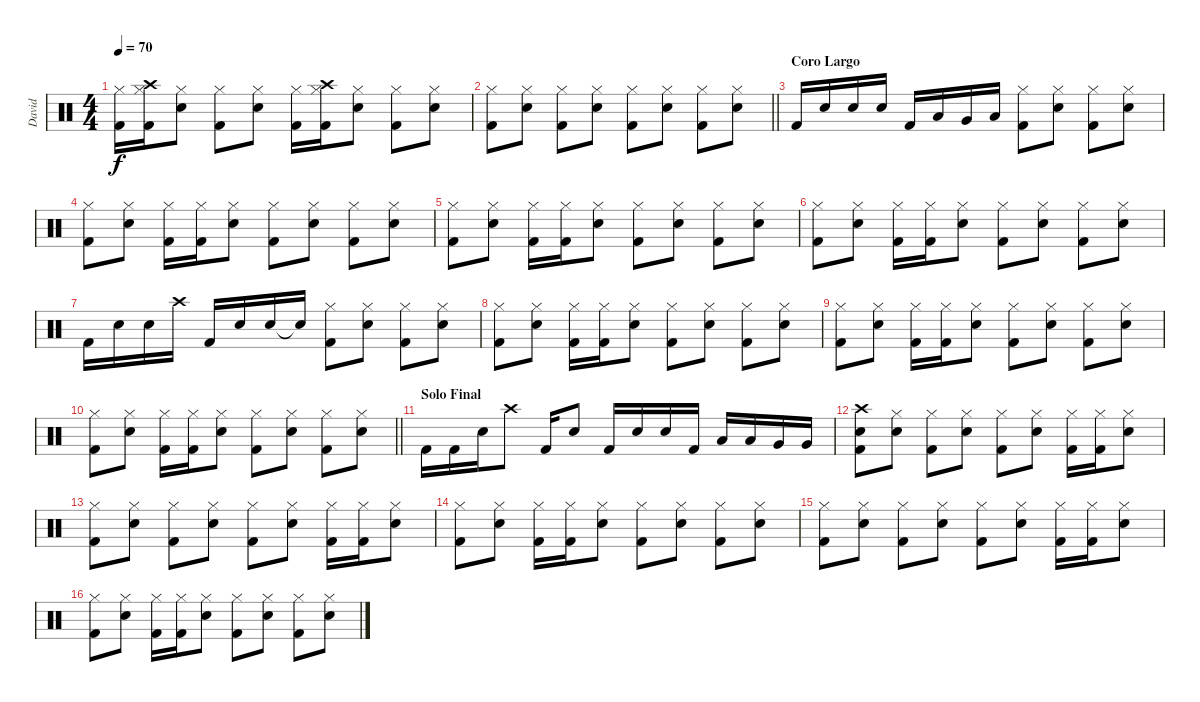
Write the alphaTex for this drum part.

\track ("David" "David") {instrument percussion}
\staff {score}
\articulation defaults
\ts (4 4)
\tempo 70
\clef neutral
\ks c
("Kick (hit) 2" "Hi-Hat (closed)").16{dy f} ("Kick (hit) 2" "Hi-Hat (closed)" "Crash high (hit)").16 ("Snare (hit) 2" "Hi-Hat (closed)").8 ("Kick (hit) 2" "Hi-Hat (closed)").8 ("Snare (hit) 2" "Hi-Hat (closed)").8 ("Kick (hit) 2" "Hi-Hat (closed)").16 ("Kick (hit) 2" "Hi-Hat (closed)" "Crash high (hit)").16 ("Snare (hit) 2" "Hi-Hat (closed)").8 ("Kick (hit) 2" "Hi-Hat (closed)").8 ("Snare (hit) 2" "Hi-Hat (closed)").8 |
\barLineRight lightlight
("Kick (hit) 2" "Hi-Hat (closed)").8 ("Snare (hit) 2" "Hi-Hat (closed)").8 ("Kick (hit) 2" "Hi-Hat (closed)").8 ("Snare (hit) 2" "Hi-Hat (closed)").8 ("Kick (hit) 2" "Hi-Hat (closed)").8 ("Snare (hit) 2" "Hi-Hat (closed)").8 ("Kick (hit) 2" "Hi-Hat (closed)").8 ("Snare (hit) 2" "Hi-Hat (closed)").8 |
\section ("" "Coro Largo")
"Kick (hit) 2".16 "Snare (hit) 2".16 "Snare (hit) 2".16 "Snare (hit) 2".16 "Kick (hit) 2".16 "Low Floor Tom (hit)".16 "Very Low Tom (hit)".16 "Low Tom (hit)".16 ("Kick (hit) 2" "Hi-Hat (closed)").8 ("Snare (hit) 2" "Hi-Hat (closed)").8 ("Kick (hit) 2" "Hi-Hat (closed)").8 ("Snare (hit) 2" "Hi-Hat (closed)").8 |
("Kick (hit) 2" "Hi-Hat (closed)").8 ("Snare (hit) 2" "Hi-Hat (closed)").8 ("Kick (hit) 2" "Hi-Hat (closed)").16 ("Kick (hit) 2" "Hi-Hat (closed)").16 ("Snare (hit) 2" "Hi-Hat (closed)").8 ("Kick (hit) 2" "Hi-Hat (closed)").8 ("Snare (hit) 2" "Hi-Hat (closed)").8 ("Kick (hit) 2" "Hi-Hat (closed)").8 ("Snare (hit) 2" "Hi-Hat (closed)").8 |
("Kick (hit) 2" "Hi-Hat (closed)").8 ("Snare (hit) 2" "Hi-Hat (closed)").8 ("Kick (hit) 2" "Hi-Hat (closed)").16 ("Kick (hit) 2" "Hi-Hat (closed)").16 ("Snare (hit) 2" "Hi-Hat (closed)").8 ("Kick (hit) 2" "Hi-Hat (closed)").8 ("Snare (hit) 2" "Hi-Hat (closed)").8 ("Kick (hit) 2" "Hi-Hat (closed)").8 ("Snare (hit) 2" "Hi-Hat (closed)").8 |
("Kick (hit) 2" "Hi-Hat (closed)").8 ("Snare (hit) 2" "Hi-Hat (closed)").8 ("Kick (hit) 2" "Hi-Hat (closed)").16 ("Kick (hit) 2" "Hi-Hat (closed)").16 ("Snare (hit) 2" "Hi-Hat (closed)").8 ("Kick (hit) 2" "Hi-Hat (closed)").8 ("Snare (hit) 2" "Hi-Hat (closed)").8 ("Kick (hit) 2" "Hi-Hat (closed)").8 ("Snare (hit) 2" "Hi-Hat (closed)").8 |
"Kick (hit) 2".16 "Snare (hit) 2".16 "Snare (hit) 2".16 "Crash high (hit)".16 "Kick (hit) 2".16 "Snare (hit) 2".16 "Snare (hit) 2".16 "Snare (hit)"{t}.16 ("Kick (hit) 2" "Hi-Hat (closed)").8 ("Snare (hit) 2" "Hi-Hat (closed)").8 ("Kick (hit) 2" "Hi-Hat (closed)").8 ("Snare (hit) 2" "Hi-Hat (closed)").8 |
("Kick (hit) 2" "Hi-Hat (closed)").8 ("Snare (hit) 2" "Hi-Hat (closed)").8 ("Kick (hit) 2" "Hi-Hat (closed)").16 ("Kick (hit) 2" "Hi-Hat (closed)").16 ("Snare (hit) 2" "Hi-Hat (closed)").8 ("Kick (hit) 2" "Hi-Hat (closed)").8 ("Snare (hit) 2" "Hi-Hat (closed)").8 ("Kick (hit) 2" "Hi-Hat (closed)").8 ("Snare (hit) 2" "Hi-Hat (closed)").8 |
("Kick (hit) 2" "Hi-Hat (closed)").8 ("Snare (hit) 2" "Hi-Hat (closed)").8 ("Kick (hit) 2" "Hi-Hat (closed)").16 ("Kick (hit) 2" "Hi-Hat (closed)").16 ("Snare (hit) 2" "Hi-Hat (closed)").8 ("Kick (hit) 2" "Hi-Hat (closed)").8 ("Snare (hit) 2" "Hi-Hat (closed)").8 ("Kick (hit) 2" "Hi-Hat (closed)").8 ("Snare (hit) 2" "Hi-Hat (closed)").8 |
\barLineRight lightlight
("Kick (hit) 2" "Hi-Hat (closed)").8 ("Snare (hit) 2" "Hi-Hat (closed)").8 ("Kick (hit) 2" "Hi-Hat (closed)").16 ("Kick (hit) 2" "Hi-Hat (closed)").16 ("Snare (hit) 2" "Hi-Hat (closed)").8 ("Kick (hit) 2" "Hi-Hat (closed)").8 ("Snare (hit) 2" "Hi-Hat (closed)").8 ("Kick (hit) 2" "Hi-Hat (closed)").8 ("Snare (hit) 2" "Hi-Hat (closed)").8 |
\section ("" "Solo Final")
"Kick (hit) 2".16 "Kick (hit) 2".16 "Snare (hit) 2".16 "Crash high (hit)".8 "Kick (hit) 2".16 "Snare (hit) 2".8 "Kick (hit) 2".16 "Snare (hit) 2".16 "Snare (hit) 2".16 "Kick (hit) 2".16 "Low Floor Tom (hit)".16 "Low Floor Tom (hit)".16 "Very Low Tom (hit)".16 "Very Low Tom (hit)".16 |
("Kick (hit) 2" "Snare (hit) 2" "Crash high (hit)").8 ("Snare (hit) 2" "Hi-Hat (closed)").8 ("Kick (hit) 2" "Hi-Hat (closed)").8 ("Snare (hit) 2" "Hi-Hat (closed)").8 ("Kick (hit) 2" "Hi-Hat (closed)").8 ("Snare (hit) 2" "Hi-Hat (closed)").8 ("Kick (hit) 2" "Hi-Hat (closed)").16 ("Kick (hit) 2" "Hi-Hat (closed)").16 ("Snare (hit) 2" "Hi-Hat (closed)").8 |
("Kick (hit) 2" "Hi-Hat (closed)").8 ("Snare (hit) 2" "Hi-Hat (closed)").8 ("Kick (hit) 2" "Hi-Hat (closed)").8 ("Snare (hit) 2" "Hi-Hat (closed)").8 ("Kick (hit) 2" "Hi-Hat (closed)").8 ("Snare (hit) 2" "Hi-Hat (closed)").8 ("Kick (hit) 2" "Hi-Hat (closed)").16 ("Kick (hit) 2" "Hi-Hat (closed)").16 ("Snare (hit) 2" "Hi-Hat (closed)").8 |
("Kick (hit) 2" "Hi-Hat (closed)").8 ("Snare (hit) 2" "Hi-Hat (closed)").8 ("Kick (hit) 2" "Hi-Hat (closed)").16 ("Kick (hit) 2" "Hi-Hat (closed)").16 ("Snare (hit) 2" "Hi-Hat (closed)").8 ("Kick (hit) 2" "Hi-Hat (closed)").8 ("Snare (hit) 2" "Hi-Hat (closed)").8 ("Kick (hit) 2" "Hi-Hat (closed)").8 ("Snare (hit) 2" "Hi-Hat (closed)").8 |
("Kick (hit) 2" "Hi-Hat (closed)").8 ("Snare (hit) 2" "Hi-Hat (closed)").8 ("Kick (hit) 2" "Hi-Hat (closed)").8 ("Snare (hit) 2" "Hi-Hat (closed)").8 ("Kick (hit) 2" "Hi-Hat (closed)").8 ("Snare (hit) 2" "Hi-Hat (closed)").8 ("Kick (hit) 2" "Hi-Hat (closed)").16 ("Kick (hit) 2" "Hi-Hat (closed)").16 ("Snare (hit) 2" "Hi-Hat (closed)").8 |
("Kick (hit) 2" "Hi-Hat (closed)").8 ("Snare (hit) 2" "Hi-Hat (closed)").8 ("Kick (hit) 2" "Hi-Hat (closed)").16 ("Kick (hit) 2" "Hi-Hat (closed)").16 ("Snare (hit) 2" "Hi-Hat (closed)").8 ("Kick (hit) 2" "Hi-Hat (closed)").8 ("Snare (hit) 2" "Hi-Hat (closed)").8 ("Kick (hit) 2" "Hi-Hat (closed)").8 ("Snare (hit) 2" "Hi-Hat (closed)").8
